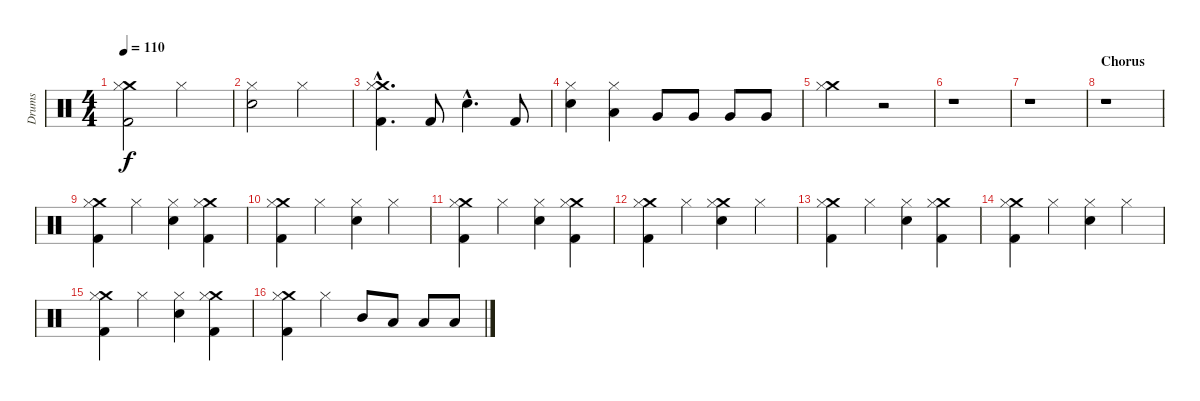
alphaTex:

\track ("Drums" "Drums") {instrument percussion}
\staff {score}
\articulation defaults
\ts (4 4)
\tempo 110
\clef neutral
\ks c
("Crash medium (hit)" "Hi-Hat (closed)" "Kick (hit) 2").2{dy f} "Hi-Hat (closed)".2 |
("Hi-Hat (closed)" "Snare (hit) 2").2 "Hi-Hat (closed)".2 |
("Crash medium (hit)"{hac} "Hi-Hat (closed)"{hac} "Kick (hit) 2"{hac}).4{d} "Kick (hit) 2".8 "Snare (hit) 2"{hac}.4{d} "Kick (hit) 2".8 |
("Hi-Hat (closed)" "Snare (hit) 2").4 ("Hi-Hat (closed)" "Low Tom (hit)").4 "Very Low Tom (hit)".8 "Very Low Tom (hit)".8 "Very Low Tom (hit)".8 "Very Low Tom (hit)".8 |
("Crash medium (hit)" "Hi-Hat (closed)").2 r.2 |
r.1 |
r.1 |
\section ("" "Chorus")
r.1 |
("Crash medium (hit)" "Kick (hit) 2" "Hi-Hat (closed)").4 "Hi-Hat (closed)".4 ("Snare (hit) 2" "Hi-Hat (closed)").4 ("Crash medium (hit)" "Kick (hit) 2" "Hi-Hat (closed)").4 |
("Crash medium (hit)" "Kick (hit) 2" "Hi-Hat (closed)").4 "Hi-Hat (closed)".4 ("Snare (hit) 2" "Hi-Hat (closed)").4 "Hi-Hat (closed)".4 |
("Crash medium (hit)" "Kick (hit) 2" "Hi-Hat (closed)").4 "Hi-Hat (closed)".4 ("Snare (hit) 2" "Hi-Hat (closed)").4 ("Crash medium (hit)" "Kick (hit) 2" "Hi-Hat (closed)").4 |
("Crash medium (hit)" "Kick (hit) 2" "Hi-Hat (closed)").4 "Hi-Hat (closed)".4 ("Crash medium (hit)" "Snare (hit) 2" "Hi-Hat (closed)").4 "Hi-Hat (closed)".4 |
("Crash medium (hit)" "Kick (hit) 2" "Hi-Hat (closed)").4 "Hi-Hat (closed)".4 ("Snare (hit) 2" "Hi-Hat (closed)").4 ("Crash medium (hit)" "Kick (hit) 2" "Hi-Hat (closed)").4 |
("Crash medium (hit)" "Kick (hit) 2" "Hi-Hat (closed)").4 "Hi-Hat (closed)".4 ("Snare (hit) 2" "Hi-Hat (closed)").4 "Hi-Hat (closed)".4 |
("Crash medium (hit)" "Kick (hit) 2" "Hi-Hat (closed)").4 "Hi-Hat (closed)".4 ("Snare (hit) 2" "Hi-Hat (closed)").4 ("Crash medium (hit)" "Kick (hit) 2" "Hi-Hat (closed)").4 |
("Crash medium (hit)" "Kick (hit) 2" "Hi-Hat (closed)").4 "Hi-Hat (closed)".4 "Mid Tom (hit)".8 "Low Tom (hit)".8 "Low Tom (hit)".8 "Low Tom (hit)".8
